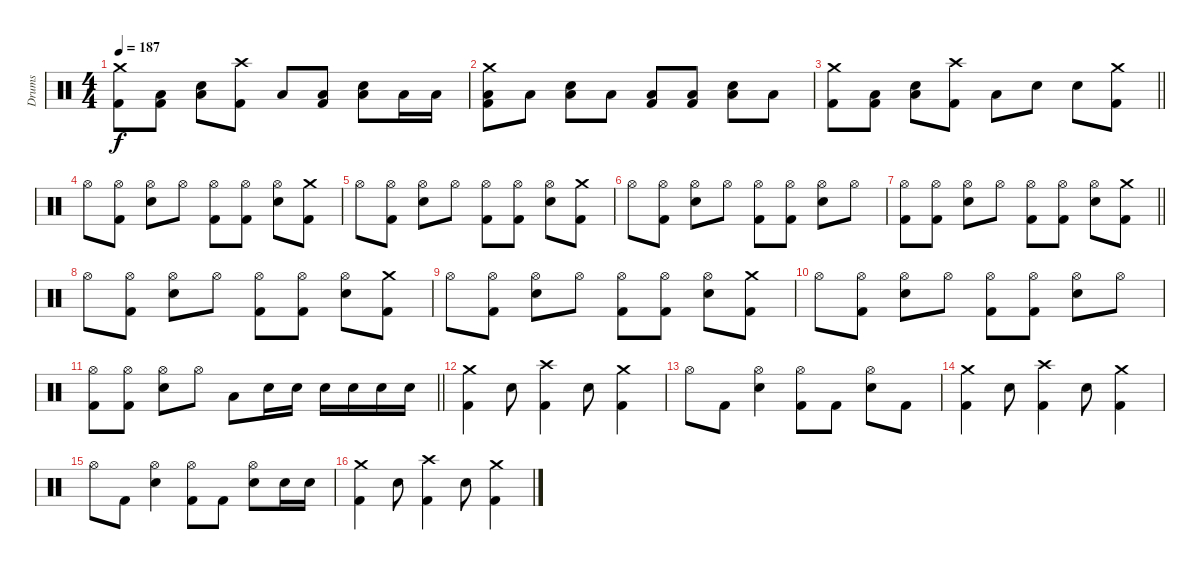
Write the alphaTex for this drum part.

\track ("Drums" "Drums") {instrument percussion}
\staff {score}
\articulation defaults
\ts (4 4)
\tempo 187
\clef neutral
\ks c
("Crash medium (hit)" "Kick (hit) 2").8{dy f} ("Low Floor Tom (hit)" "Kick (hit) 2").8 ("Electric Snare (hit)" "Low Floor Tom (hit)").8 ("Crash high (hit)" "Kick (hit) 2").8 "Low Floor Tom (hit)".8 ("Low Floor Tom (hit)" "Kick (hit) 2").8 ("Electric Snare (hit)" "Low Floor Tom (hit)").8 "Low Floor Tom (hit)".16 "Low Floor Tom (hit)".16 |
("Crash medium (hit)" "Low Floor Tom (hit)" "Kick (hit) 2").8 "Low Floor Tom (hit)".8 ("Electric Snare (hit)" "Low Floor Tom (hit)").8 "Low Floor Tom (hit)".8 ("Low Floor Tom (hit)" "Kick (hit) 2").8 ("Low Floor Tom (hit)" "Kick (hit) 2").8 ("Electric Snare (hit)" "Low Floor Tom (hit)").8 "Low Floor Tom (hit)".8 |
\barLineRight lightlight
("Crash medium (hit)" "Kick (hit) 2").8 ("Low Floor Tom (hit)" "Kick (hit) 2").8 ("Electric Snare (hit)" "Low Floor Tom (hit)").8 ("Crash high (hit)" "Kick (hit) 2").8 "Low Floor Tom (hit)".8 "Electric Snare (hit)".8 "Electric Snare (hit)".8 ("Crash medium (hit)" "Kick (hit) 2").8 |
"Hi-Hat (open)".8 ("Hi-Hat (open)" "Kick (hit) 2").8 ("Hi-Hat (open)" "Electric Snare (hit)").8 "Hi-Hat (open)".8 ("Hi-Hat (open)" "Kick (hit) 2").8 ("Hi-Hat (open)" "Kick (hit) 2").8 ("Hi-Hat (open)" "Electric Snare (hit)").8 ("Crash medium (hit)" "Kick (hit) 2").8 |
"Hi-Hat (open)".8 ("Hi-Hat (open)" "Kick (hit) 2").8 ("Hi-Hat (open)" "Electric Snare (hit)").8 "Hi-Hat (open)".8 ("Hi-Hat (open)" "Kick (hit) 2").8 ("Hi-Hat (open)" "Kick (hit) 2").8 ("Hi-Hat (open)" "Electric Snare (hit)").8 ("Crash medium (hit)" "Kick (hit) 2").8 |
"Hi-Hat (open)".8 ("Hi-Hat (open)" "Kick (hit) 2").8 ("Hi-Hat (open)" "Electric Snare (hit)").8 "Hi-Hat (open)".8 ("Hi-Hat (open)" "Kick (hit) 2").8 ("Hi-Hat (open)" "Kick (hit) 2").8 ("Hi-Hat (open)" "Electric Snare (hit)").8 "Hi-Hat (open)".8 |
\barLineRight lightlight
("Hi-Hat (open)" "Kick (hit) 2").8 ("Hi-Hat (open)" "Kick (hit) 2").8 ("Hi-Hat (open)" "Electric Snare (hit)").8 "Hi-Hat (open)".8 ("Hi-Hat (open)" "Kick (hit) 2").8 ("Hi-Hat (open)" "Kick (hit) 2").8 ("Hi-Hat (open)" "Electric Snare (hit)").8 ("Crash medium (hit)" "Kick (hit) 2").8 |
"Hi-Hat (open)".8 ("Hi-Hat (open)" "Kick (hit) 2").8 ("Hi-Hat (open)" "Electric Snare (hit)").8 "Hi-Hat (open)".8 ("Hi-Hat (open)" "Kick (hit) 2").8 ("Hi-Hat (open)" "Kick (hit) 2").8 ("Hi-Hat (open)" "Electric Snare (hit)").8 ("Crash medium (hit)" "Kick (hit) 2").8 |
"Hi-Hat (open)".8 ("Hi-Hat (open)" "Kick (hit) 2").8 ("Hi-Hat (open)" "Electric Snare (hit)").8 "Hi-Hat (open)".8 ("Hi-Hat (open)" "Kick (hit) 2").8 ("Hi-Hat (open)" "Kick (hit) 2").8 ("Hi-Hat (open)" "Electric Snare (hit)").8 ("Crash medium (hit)" "Kick (hit) 2").8 |
"Hi-Hat (open)".8 ("Hi-Hat (open)" "Kick (hit) 2").8 ("Hi-Hat (open)" "Electric Snare (hit)").8 "Hi-Hat (open)".8 ("Hi-Hat (open)" "Kick (hit) 2").8 ("Hi-Hat (open)" "Kick (hit) 2").8 ("Hi-Hat (open)" "Electric Snare (hit)").8 "Hi-Hat (open)".8 |
\barLineRight lightlight
("Hi-Hat (open)" "Kick (hit) 2").8 ("Hi-Hat (open)" "Kick (hit) 2").8 ("Hi-Hat (open)" "Electric Snare (hit)").8 "Hi-Hat (open)".8 "Low Tom (hit)".8 "Electric Snare (hit)".16 "Electric Snare (hit)".16 "Electric Snare (hit)".16 "Electric Snare (hit)".16 "Electric Snare (hit)".16 "Electric Snare (hit)".16 |
("Crash medium (hit)" "Kick (hit) 2").4 "Electric Snare (hit)".8 ("Crash high (hit)" "Kick (hit) 2").4 "Electric Snare (hit)".8 ("Crash medium (hit)" "Kick (hit) 2").4 |
"Hi-Hat (open)".8 "Kick (hit) 2".8 ("Hi-Hat (open)" "Electric Snare (hit)").4 ("Hi-Hat (open)" "Kick (hit) 2").8 "Kick (hit) 2".8 ("Hi-Hat (open)" "Electric Snare (hit)").8 "Kick (hit) 2".8 |
("Crash medium (hit)" "Kick (hit) 2").4 "Electric Snare (hit)".8 ("Crash high (hit)" "Kick (hit) 2").4 "Electric Snare (hit)".8 ("Crash medium (hit)" "Kick (hit) 2").4 |
"Hi-Hat (open)".8 "Kick (hit) 2".8 ("Hi-Hat (open)" "Electric Snare (hit)").4 ("Hi-Hat (open)" "Kick (hit) 2").8 "Kick (hit) 2".8 ("Hi-Hat (open)" "Electric Snare (hit)").8 "Electric Snare (hit)".16 "Electric Snare (hit)".16 |
("Crash medium (hit)" "Kick (hit) 2").4 "Electric Snare (hit)".8 ("Crash high (hit)" "Kick (hit) 2").4 "Electric Snare (hit)".8 ("Crash medium (hit)" "Kick (hit) 2").4
